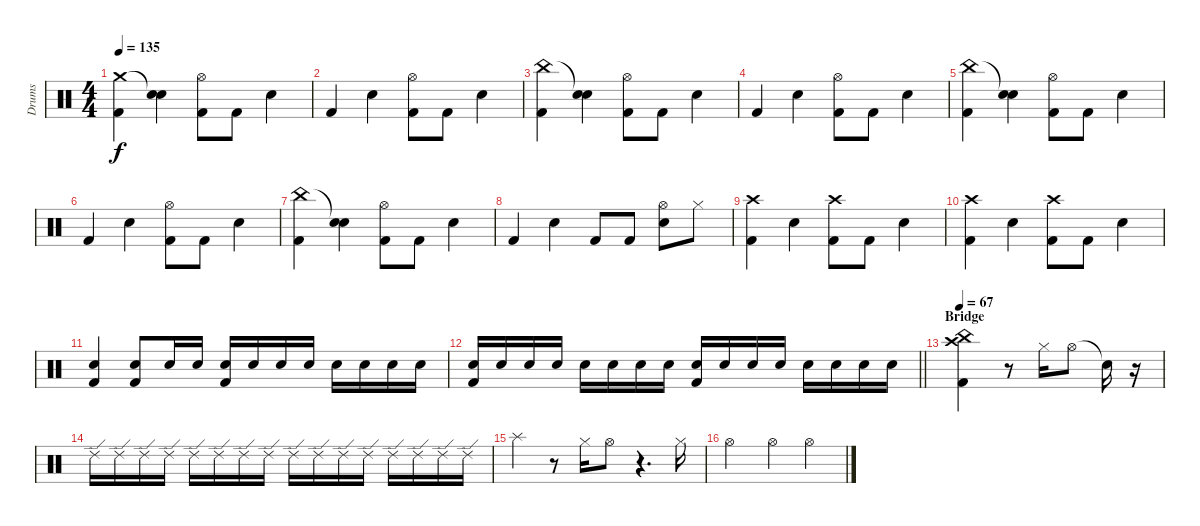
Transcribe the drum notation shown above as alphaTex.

\track ("Drums" "Drums") {instrument percussion}
\staff {score}
\articulation defaults
\ts (4 4)
\tempo 135
\clef neutral
\ks c
("Crash medium (hit)" "Kick (hit) 2").4{dy f} ("Snare (hit)"{t} "Electric Snare (hit)").4 ("Hi-Hat (open)" "Kick (hit) 2").8 "Kick (hit) 2".8 "Electric Snare (hit)".4 |
"Kick (hit) 2".4 "Electric Snare (hit)".4 ("Hi-Hat (open)" "Kick (hit) 2").8 "Kick (hit) 2".8 "Electric Snare (hit)".4 |
("China (hit)" "Kick (hit) 2").4 ("Snare (hit)"{t} "Electric Snare (hit)").4 ("Hi-Hat (open)" "Kick (hit) 2").8 "Kick (hit) 2".8 "Electric Snare (hit)".4 |
"Kick (hit) 2".4 "Electric Snare (hit)".4 ("Hi-Hat (open)" "Kick (hit) 2").8 "Kick (hit) 2".8 "Electric Snare (hit)".4 |
("China (hit)" "Kick (hit) 2").4 ("Snare (hit)"{t} "Electric Snare (hit)").4 ("Hi-Hat (open)" "Kick (hit) 2").8 "Kick (hit) 2".8 "Electric Snare (hit)".4 |
"Kick (hit) 2".4 "Electric Snare (hit)".4 ("Hi-Hat (open)" "Kick (hit) 2").8 "Kick (hit) 2".8 "Electric Snare (hit)".4 |
("China (hit)" "Kick (hit) 2").4 ("Snare (hit)"{t} "Electric Snare (hit)").4 ("Hi-Hat (open)" "Kick (hit) 2").8 "Kick (hit) 2".8 "Electric Snare (hit)".4 |
"Kick (hit) 2".4 "Electric Snare (hit)".4 "Kick (hit) 2".8 "Kick (hit) 2".8 ("Electric Snare (hit)" "Hi-Hat (open)").8 "Hi-Hat (closed)".8 |
("Crash high (hit)" "Kick (hit) 2").4 "Electric Snare (hit)".4 ("Crash high (hit)" "Kick (hit) 2").8 "Kick (hit) 2".8 "Electric Snare (hit)".4 |
("Crash high (hit)" "Kick (hit) 2").4 "Electric Snare (hit)".4 ("Crash high (hit)" "Kick (hit) 2").8 "Kick (hit) 2".8 "Electric Snare (hit)".4 |
("Electric Snare (hit)" "Kick (hit) 2").4 ("Electric Snare (hit)" "Kick (hit) 2").8 "Electric Snare (hit)".16 "Electric Snare (hit)".16 ("Electric Snare (hit)" "Kick (hit) 2").16 "Electric Snare (hit)".16 "Electric Snare (hit)".16 "Electric Snare (hit)".16 "Electric Snare (hit)".16 "Electric Snare (hit)".16 "Electric Snare (hit)".16 "Electric Snare (hit)".16 |
\barLineRight lightlight
("Electric Snare (hit)" "Kick (hit) 2").16 "Electric Snare (hit)".16 "Electric Snare (hit)".16 "Electric Snare (hit)".16 "Electric Snare (hit)".16 "Electric Snare (hit)".16 "Electric Snare (hit)".16 "Electric Snare (hit)".16 ("Electric Snare (hit)" "Kick (hit) 2").16 "Electric Snare (hit)".16 "Electric Snare (hit)".16 "Electric Snare (hit)".16 "Electric Snare (hit)".16 "Electric Snare (hit)".16 "Electric Snare (hit)".16 "Electric Snare (hit)".16 |
\section ("" "Bridge")
\tempo 67
("Crash high (hit)" "China (hit)" "Kick (hit) 2").4 r.8 "Hi-Hat (closed)".16 "Hi-Hat (open)".8 "Snare (hit)"{t}.16 r.16 |
"Ride (edge) 2".16{volume 4} "Ride (edge) 2".16{volume 12} "Ride (edge) 2".16 "Ride (edge) 2".16 "Ride (edge) 2".16 "Ride (edge) 2".16 "Ride (edge) 2".16 "Ride (edge) 2".16 "Ride (edge) 2".16 "Ride (edge) 2".16 "Ride (edge) 2".16 "Ride (edge) 2".16 "Ride (edge) 2".16 "Ride (edge) 2".16 "Ride (edge) 2".16 "Ride (edge) 2".16 |
"Splash (hit)".4 r.8 "Hi-Hat (closed)".16 "Hi-Hat (open)".8 r.4{d} "Hi-Hat (closed)".16 |
"Hi-Hat (open)".2 "Hi-Hat (open)".4 "Hi-Hat (open)".4
